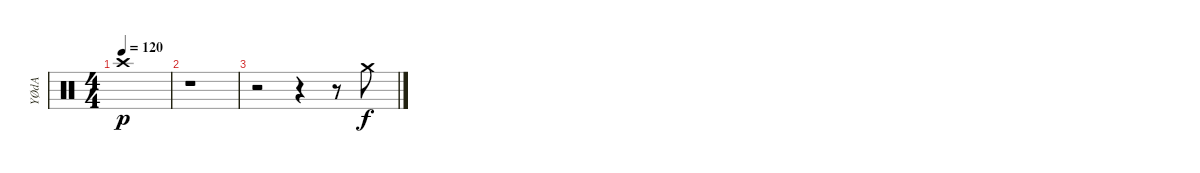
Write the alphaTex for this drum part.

\track ("YØdA" "YØdA") {instrument percussion}
\staff {score}
\articulation defaults
\ts (4 4)
\tempo 120
\clef neutral
\ks c "Crash high (hit)".1{dy p}
|
r.1 |
r.2 r.4 r.8 "Crash medium (hit)".8{dy f}
